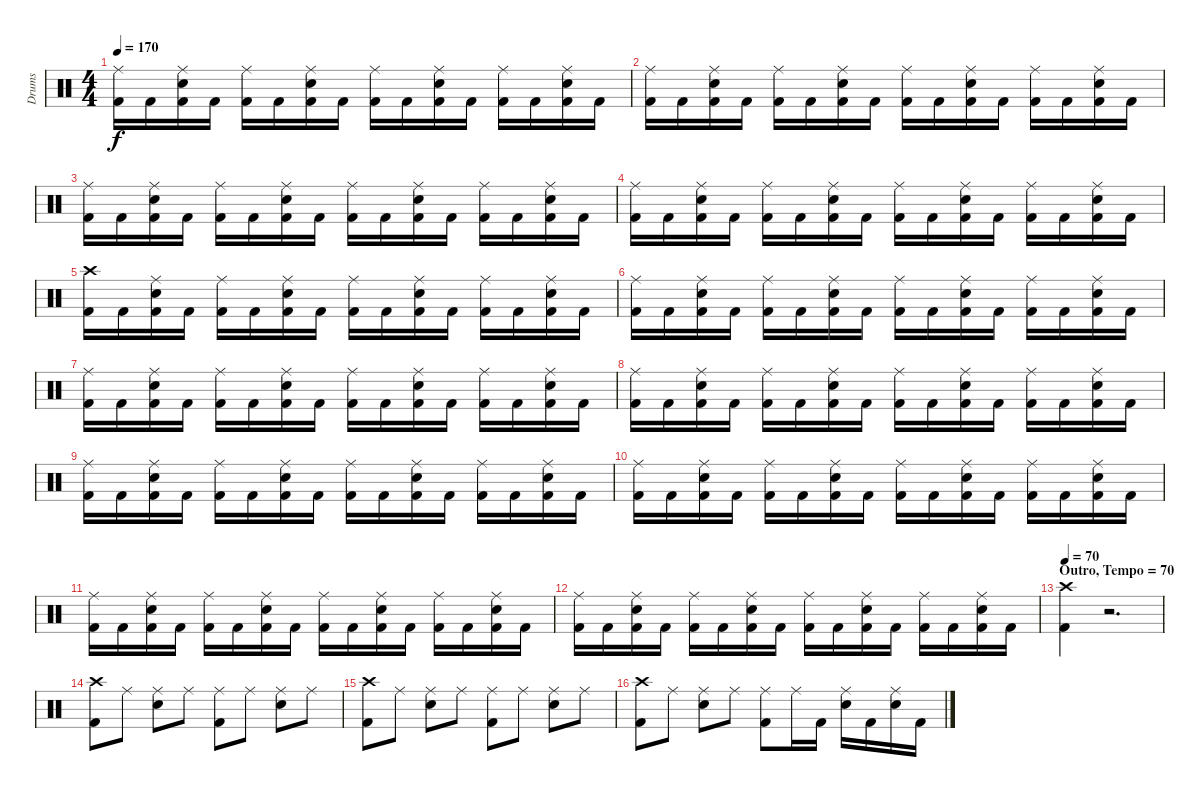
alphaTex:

\track ("Drums" "Drums") {instrument percussion}
\staff {score}
\articulation defaults
\ts (4 4)
\tempo 170
\clef neutral
\ks c
("Ride (middle)" "Kick (hit) 2").16{dy f} "Kick (hit) 2".16 ("Ride (middle)" "Electric Snare (hit)" "Kick (hit) 2").16 "Kick (hit) 2".16 ("Ride (middle)" "Kick (hit) 2").16 "Kick (hit) 2".16 ("Ride (middle)" "Electric Snare (hit)" "Kick (hit) 2").16 "Kick (hit) 2".16 ("Ride (middle)" "Kick (hit) 2").16 "Kick (hit) 2".16 ("Ride (middle)" "Electric Snare (hit)" "Kick (hit) 2").16 "Kick (hit) 2".16 ("Ride (middle)" "Kick (hit) 2").16 "Kick (hit) 2".16 ("Ride (middle)" "Electric Snare (hit)" "Kick (hit) 2").16 "Kick (hit) 2".16 |
("Ride (middle)" "Kick (hit) 2").16 "Kick (hit) 2".16 ("Ride (middle)" "Electric Snare (hit)" "Kick (hit) 2").16 "Kick (hit) 2".16 ("Ride (middle)" "Kick (hit) 2").16 "Kick (hit) 2".16 ("Ride (middle)" "Electric Snare (hit)" "Kick (hit) 2").16 "Kick (hit) 2".16 ("Ride (middle)" "Kick (hit) 2").16 "Kick (hit) 2".16 ("Ride (middle)" "Electric Snare (hit)" "Kick (hit) 2").16 "Kick (hit) 2".16 ("Ride (middle)" "Kick (hit) 2").16 "Kick (hit) 2".16 ("Ride (middle)" "Electric Snare (hit)" "Kick (hit) 2").16 "Kick (hit) 2".16 |
("Ride (middle)" "Kick (hit) 2").16 "Kick (hit) 2".16 ("Ride (middle)" "Electric Snare (hit)" "Kick (hit) 2").16 "Kick (hit) 2".16 ("Ride (middle)" "Kick (hit) 2").16 "Kick (hit) 2".16 ("Ride (middle)" "Electric Snare (hit)" "Kick (hit) 2").16 "Kick (hit) 2".16 ("Ride (middle)" "Kick (hit) 2").16 "Kick (hit) 2".16 ("Ride (middle)" "Electric Snare (hit)" "Kick (hit) 2").16 "Kick (hit) 2".16 ("Ride (middle)" "Kick (hit) 2").16 "Kick (hit) 2".16 ("Ride (middle)" "Electric Snare (hit)" "Kick (hit) 2").16 "Kick (hit) 2".16 |
("Ride (middle)" "Kick (hit) 2").16 "Kick (hit) 2".16 ("Ride (middle)" "Electric Snare (hit)" "Kick (hit) 2").16 "Kick (hit) 2".16 ("Ride (middle)" "Kick (hit) 2").16 "Kick (hit) 2".16 ("Ride (middle)" "Electric Snare (hit)" "Kick (hit) 2").16 "Kick (hit) 2".16 ("Ride (middle)" "Kick (hit) 2").16 "Kick (hit) 2".16 ("Ride (middle)" "Electric Snare (hit)" "Kick (hit) 2").16 "Kick (hit) 2".16 ("Ride (middle)" "Kick (hit) 2").16 "Kick (hit) 2".16 ("Ride (middle)" "Electric Snare (hit)" "Kick (hit) 2").16 "Kick (hit) 2".16 |
("Crash high (hit)" "Kick (hit) 2").16 "Kick (hit) 2".16 ("Ride (middle)" "Electric Snare (hit)" "Kick (hit) 2").16 "Kick (hit) 2".16 ("Ride (middle)" "Kick (hit) 2").16 "Kick (hit) 2".16 ("Ride (middle)" "Electric Snare (hit)" "Kick (hit) 2").16 "Kick (hit) 2".16 ("Ride (middle)" "Kick (hit) 2").16 "Kick (hit) 2".16 ("Ride (middle)" "Electric Snare (hit)" "Kick (hit) 2").16 "Kick (hit) 2".16 ("Ride (middle)" "Kick (hit) 2").16 "Kick (hit) 2".16 ("Ride (middle)" "Electric Snare (hit)" "Kick (hit) 2").16 "Kick (hit) 2".16 |
("Ride (middle)" "Kick (hit) 2").16 "Kick (hit) 2".16 ("Ride (middle)" "Electric Snare (hit)" "Kick (hit) 2").16 "Kick (hit) 2".16 ("Ride (middle)" "Kick (hit) 2").16 "Kick (hit) 2".16 ("Ride (middle)" "Electric Snare (hit)" "Kick (hit) 2").16 "Kick (hit) 2".16 ("Ride (middle)" "Kick (hit) 2").16 "Kick (hit) 2".16 ("Ride (middle)" "Electric Snare (hit)" "Kick (hit) 2").16 "Kick (hit) 2".16 ("Ride (middle)" "Kick (hit) 2").16 "Kick (hit) 2".16 ("Ride (middle)" "Electric Snare (hit)" "Kick (hit) 2").16 "Kick (hit) 2".16 |
("Ride (middle)" "Kick (hit) 2").16 "Kick (hit) 2".16 ("Ride (middle)" "Electric Snare (hit)" "Kick (hit) 2").16 "Kick (hit) 2".16 ("Ride (middle)" "Kick (hit) 2").16 "Kick (hit) 2".16 ("Ride (middle)" "Electric Snare (hit)" "Kick (hit) 2").16 "Kick (hit) 2".16 ("Ride (middle)" "Kick (hit) 2").16 "Kick (hit) 2".16 ("Ride (middle)" "Electric Snare (hit)" "Kick (hit) 2").16 "Kick (hit) 2".16 ("Ride (middle)" "Kick (hit) 2").16 "Kick (hit) 2".16 ("Ride (middle)" "Electric Snare (hit)" "Kick (hit) 2").16 "Kick (hit) 2".16 |
("Ride (middle)" "Kick (hit) 2").16 "Kick (hit) 2".16 ("Ride (middle)" "Electric Snare (hit)" "Kick (hit) 2").16 "Kick (hit) 2".16 ("Ride (middle)" "Kick (hit) 2").16 "Kick (hit) 2".16 ("Ride (middle)" "Electric Snare (hit)" "Kick (hit) 2").16 "Kick (hit) 2".16 ("Ride (middle)" "Kick (hit) 2").16 "Kick (hit) 2".16 ("Ride (middle)" "Electric Snare (hit)" "Kick (hit) 2").16 "Kick (hit) 2".16 ("Ride (middle)" "Kick (hit) 2").16 "Kick (hit) 2".16 ("Ride (middle)" "Electric Snare (hit)" "Kick (hit) 2").16 "Kick (hit) 2".16 |
("Ride (middle)" "Kick (hit) 2").16 "Kick (hit) 2".16 ("Ride (middle)" "Electric Snare (hit)" "Kick (hit) 2").16 "Kick (hit) 2".16 ("Ride (middle)" "Kick (hit) 2").16 "Kick (hit) 2".16 ("Ride (middle)" "Electric Snare (hit)" "Kick (hit) 2").16 "Kick (hit) 2".16 ("Ride (middle)" "Kick (hit) 2").16 "Kick (hit) 2".16 ("Ride (middle)" "Electric Snare (hit)" "Kick (hit) 2").16 "Kick (hit) 2".16 ("Ride (middle)" "Kick (hit) 2").16 "Kick (hit) 2".16 ("Ride (middle)" "Electric Snare (hit)" "Kick (hit) 2").16 "Kick (hit) 2".16 |
("Ride (middle)" "Kick (hit) 2").16 "Kick (hit) 2".16 ("Ride (middle)" "Electric Snare (hit)" "Kick (hit) 2").16 "Kick (hit) 2".16 ("Ride (middle)" "Kick (hit) 2").16 "Kick (hit) 2".16 ("Ride (middle)" "Electric Snare (hit)" "Kick (hit) 2").16 "Kick (hit) 2".16 ("Ride (middle)" "Kick (hit) 2").16 "Kick (hit) 2".16 ("Ride (middle)" "Electric Snare (hit)" "Kick (hit) 2").16 "Kick (hit) 2".16 ("Ride (middle)" "Kick (hit) 2").16 "Kick (hit) 2".16 ("Ride (middle)" "Electric Snare (hit)" "Kick (hit) 2").16 "Kick (hit) 2".16 |
("Ride (middle)" "Kick (hit) 2").16 "Kick (hit) 2".16 ("Ride (middle)" "Electric Snare (hit)" "Kick (hit) 2").16 "Kick (hit) 2".16 ("Ride (middle)" "Kick (hit) 2").16 "Kick (hit) 2".16 ("Ride (middle)" "Electric Snare (hit)" "Kick (hit) 2").16 "Kick (hit) 2".16 ("Ride (middle)" "Kick (hit) 2").16 "Kick (hit) 2".16 ("Ride (middle)" "Electric Snare (hit)" "Kick (hit) 2").16 "Kick (hit) 2".16 ("Ride (middle)" "Kick (hit) 2").16 "Kick (hit) 2".16 ("Ride (middle)" "Electric Snare (hit)" "Kick (hit) 2").16 "Kick (hit) 2".16 |
("Ride (middle)" "Kick (hit) 2").16 "Kick (hit) 2".16 ("Ride (middle)" "Electric Snare (hit)" "Kick (hit) 2").16 "Kick (hit) 2".16 ("Ride (middle)" "Kick (hit) 2").16 "Kick (hit) 2".16 ("Ride (middle)" "Electric Snare (hit)" "Kick (hit) 2").16 "Kick (hit) 2".16 ("Ride (middle)" "Kick (hit) 2").16 "Kick (hit) 2".16 ("Ride (middle)" "Electric Snare (hit)" "Kick (hit) 2").16 "Kick (hit) 2".16 ("Ride (middle)" "Kick (hit) 2").16 "Kick (hit) 2".16 ("Ride (middle)" "Electric Snare (hit)" "Kick (hit) 2").16 "Kick (hit) 2".16 |
\section ("" "Outro, Tempo = 70")
\tempo 70
("Crash high (hit)" "Kick (hit) 2").4 r.2{d} |
("Crash high (hit)" "Kick (hit) 2").8 "Ride (middle)".8 ("Ride (middle)" "Electric Snare (hit)").8 "Ride (middle)".8 ("Ride (middle)" "Kick (hit) 2").8 "Ride (middle)".8 ("Ride (middle)" "Electric Snare (hit)").8 "Ride (middle)".8 |
("Crash high (hit)" "Kick (hit) 2").8 "Ride (middle)".8 ("Ride (middle)" "Electric Snare (hit)").8 "Ride (middle)".8 ("Ride (middle)" "Kick (hit) 2").8 "Ride (middle)".8 ("Ride (middle)" "Electric Snare (hit)").8 "Ride (middle)".8 |
("Crash high (hit)" "Kick (hit) 2").8 "Ride (middle)".8 ("Ride (middle)" "Electric Snare (hit)").8 "Ride (middle)".8 ("Ride (middle)" "Kick (hit) 2").8 "Ride (middle)".16 "Kick (hit) 2".16 ("Ride (middle)" "Electric Snare (hit)").16 "Kick (hit) 2".16 ("Ride (middle)" "Electric Snare (hit)").16 "Kick (hit) 2".16
